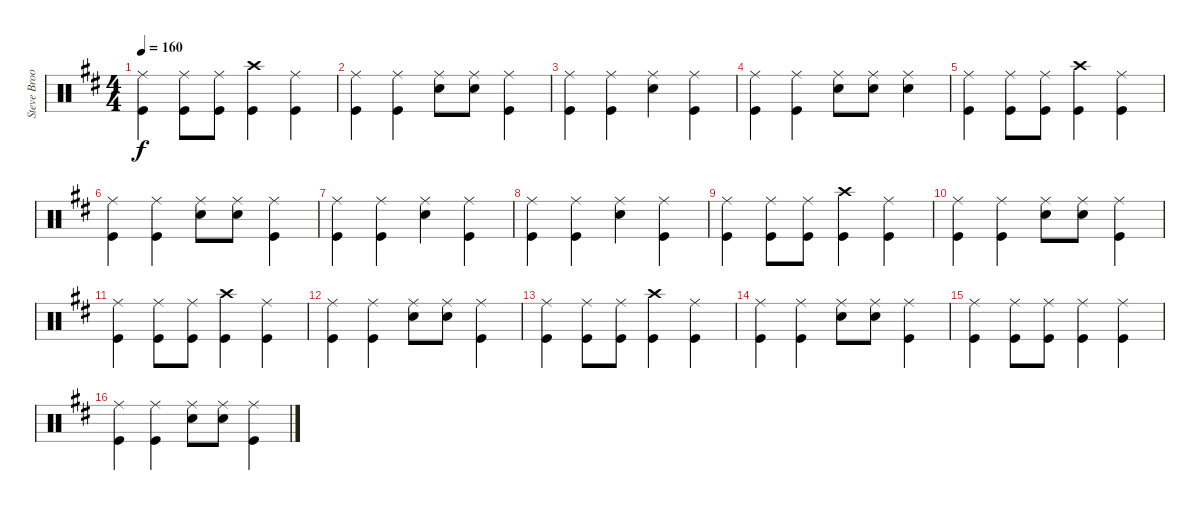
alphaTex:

\track ("Steve Brookins Drums" "Steve Broo") {instrument percussion}
\staff {score}
\articulation defaults
\ts (4 4)
\tempo 160
\clef neutral
\ks d
("Ride (middle)" "Kick (hit)").4{dy f} ("Ride (middle)" "Kick (hit)").8 ("Ride (middle)" "Kick (hit)").8 ("Crash high (hit)" "Kick (hit)").4 ("Ride (middle)" "Kick (hit)").4 |
("Ride (middle)" "Kick (hit)").4 ("Ride (middle)" "Kick (hit)").4 ("Ride (middle)" "Snare (hit) 2").8 ("Ride (middle)" "Snare (hit) 2").8 ("Ride (middle)" "Kick (hit)").4 |
("Ride (middle)" "Kick (hit)").4 ("Ride (middle)" "Kick (hit)").4 ("Ride (middle)" "Snare (hit) 2").4 ("Ride (middle)" "Kick (hit)").4 |
("Ride (middle)" "Kick (hit)").4 ("Ride (middle)" "Kick (hit)").4 ("Ride (middle)" "Snare (hit) 2").8 ("Ride (middle)" "Snare (hit) 2").8 ("Ride (middle)" "Snare (hit) 2").4 |
("Ride (middle)" "Kick (hit)").4 ("Ride (middle)" "Kick (hit)").8 ("Ride (middle)" "Kick (hit)").8 ("Crash high (hit)" "Kick (hit)").4 ("Ride (middle)" "Kick (hit)").4 |
("Ride (middle)" "Kick (hit)").4 ("Ride (middle)" "Kick (hit)").4 ("Ride (middle)" "Snare (hit) 2").8 ("Ride (middle)" "Snare (hit) 2").8 ("Ride (middle)" "Kick (hit)").4 |
("Ride (middle)" "Kick (hit)").4 ("Ride (middle)" "Kick (hit)").4 ("Ride (middle)" "Snare (hit) 2").4 ("Ride (middle)" "Kick (hit)").4 |
("Ride (middle)" "Kick (hit)").4 ("Ride (middle)" "Kick (hit)").4 ("Ride (middle)" "Snare (hit) 2").4 ("Ride (middle)" "Kick (hit)").4 |
("Ride (middle)" "Kick (hit)").4 ("Ride (middle)" "Kick (hit)").8 ("Ride (middle)" "Kick (hit)").8 ("Crash high (hit)" "Kick (hit)").4 ("Ride (middle)" "Kick (hit)").4 |
("Ride (middle)" "Kick (hit)").4 ("Ride (middle)" "Kick (hit)").4 ("Ride (middle)" "Snare (hit) 2").8 ("Ride (middle)" "Snare (hit) 2").8 ("Ride (middle)" "Kick (hit)").4 |
("Ride (middle)" "Kick (hit)").4 ("Ride (middle)" "Kick (hit)").8 ("Ride (middle)" "Kick (hit)").8 ("Crash high (hit)" "Kick (hit)").4 ("Ride (middle)" "Kick (hit)").4 |
("Ride (middle)" "Kick (hit)").4 ("Ride (middle)" "Kick (hit)").4 ("Ride (middle)" "Snare (hit) 2").8 ("Ride (middle)" "Snare (hit) 2").8 ("Ride (middle)" "Kick (hit)").4 |
("Ride (middle)" "Kick (hit)").4 ("Ride (middle)" "Kick (hit)").8 ("Ride (middle)" "Kick (hit)").8 ("Crash high (hit)" "Kick (hit)").4 ("Ride (middle)" "Kick (hit)").4 |
("Ride (middle)" "Kick (hit)").4 ("Ride (middle)" "Kick (hit)").4 ("Ride (middle)" "Snare (hit) 2").8 ("Ride (middle)" "Snare (hit) 2").8 ("Ride (middle)" "Kick (hit)").4 |
("Ride (middle)" "Kick (hit)").4 ("Ride (middle)" "Kick (hit)").8 ("Ride (middle)" "Kick (hit)").8 ("Ride (middle)" "Kick (hit)").4 ("Ride (middle)" "Kick (hit)").4 |
("Ride (middle)" "Kick (hit)").4 ("Ride (middle)" "Kick (hit)").4 ("Ride (middle)" "Snare (hit) 2").8 ("Ride (middle)" "Snare (hit) 2").8 ("Ride (middle)" "Kick (hit)").4
